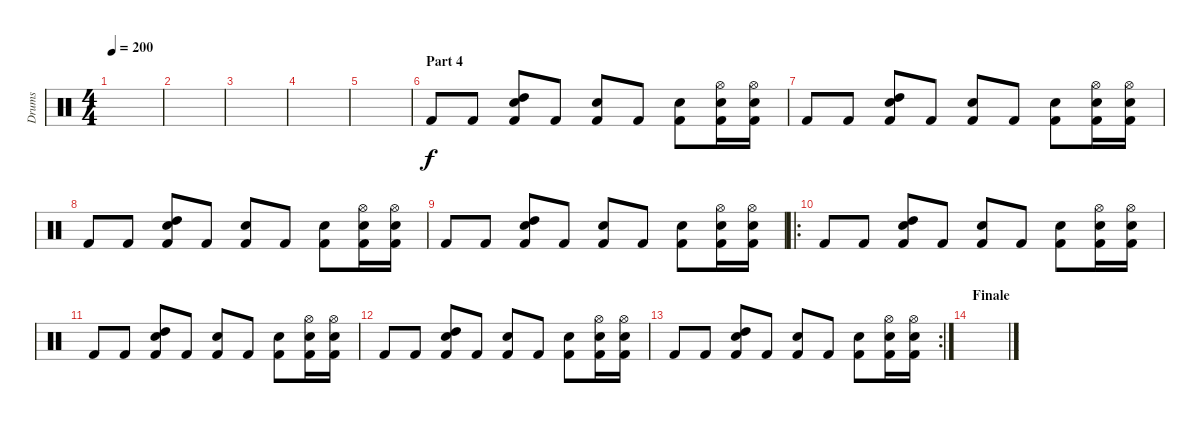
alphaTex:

\track ("Drums" "Drums") {instrument percussion}
\staff {score}
\articulation defaults
\ts (4 4)
\tempo 200
\clef neutral
\ks c
|
|
|
|
|
\section ("" "Part 4")
"Kick (hit) 2".8 "Kick (hit) 2".8 ("Kick (hit) 2" "Electric Snare (hit)" "High Tom (hit)").8 "Kick (hit) 2".8 ("Kick (hit) 2" "Electric Snare (hit)").8 "Kick (hit) 2".8 ("Kick (hit) 2" "Electric Snare (hit)").8 ("Kick (hit) 2" "Hi-Hat (open)" "Electric Snare (hit)").16 ("Kick (hit) 2" "Hi-Hat (open)" "Electric Snare (hit)").16 |
"Kick (hit) 2".8 "Kick (hit) 2".8 ("Kick (hit) 2" "Electric Snare (hit)" "High Tom (hit)").8 "Kick (hit) 2".8 ("Kick (hit) 2" "Electric Snare (hit)").8 "Kick (hit) 2".8 ("Kick (hit) 2" "Electric Snare (hit)").8 ("Kick (hit) 2" "Hi-Hat (open)" "Electric Snare (hit)").16 ("Kick (hit) 2" "Hi-Hat (open)" "Electric Snare (hit)").16 |
"Kick (hit) 2".8 "Kick (hit) 2".8 ("Kick (hit) 2" "Electric Snare (hit)" "High Tom (hit)").8 "Kick (hit) 2".8 ("Kick (hit) 2" "Electric Snare (hit)").8 "Kick (hit) 2".8 ("Kick (hit) 2" "Electric Snare (hit)").8 ("Kick (hit) 2" "Hi-Hat (open)" "Electric Snare (hit)").16 ("Kick (hit) 2" "Hi-Hat (open)" "Electric Snare (hit)").16 |
"Kick (hit) 2".8 "Kick (hit) 2".8 ("Kick (hit) 2" "Electric Snare (hit)" "High Tom (hit)").8 "Kick (hit) 2".8 ("Kick (hit) 2" "Electric Snare (hit)").8 "Kick (hit) 2".8 ("Kick (hit) 2" "Electric Snare (hit)").8 ("Kick (hit) 2" "Hi-Hat (open)" "Electric Snare (hit)").16 ("Kick (hit) 2" "Hi-Hat (open)" "Electric Snare (hit)").16 |
\ro "Kick (hit) 2".8 "Kick (hit) 2".8
("Kick (hit) 2" "Electric Snare (hit)" "High Tom (hit)").8 "Kick (hit) 2".8 ("Kick (hit) 2" "Electric Snare (hit)").8 "Kick (hit) 2".8 ("Kick (hit) 2" "Electric Snare (hit)").8 ("Kick (hit) 2" "Hi-Hat (open)" "Electric Snare (hit)").16 ("Kick (hit) 2" "Hi-Hat (open)" "Electric Snare (hit)").16 |
"Kick (hit) 2".8 "Kick (hit) 2".8 ("Kick (hit) 2" "Electric Snare (hit)" "High Tom (hit)").8 "Kick (hit) 2".8 ("Kick (hit) 2" "Electric Snare (hit)").8 "Kick (hit) 2".8 ("Kick (hit) 2" "Electric Snare (hit)").8 ("Kick (hit) 2" "Hi-Hat (open)" "Electric Snare (hit)").16 ("Kick (hit) 2" "Hi-Hat (open)" "Electric Snare (hit)").16 |
"Kick (hit) 2".8 "Kick (hit) 2".8 ("Kick (hit) 2" "Electric Snare (hit)" "High Tom (hit)").8 "Kick (hit) 2".8 ("Kick (hit) 2" "Electric Snare (hit)").8 "Kick (hit) 2".8 ("Kick (hit) 2" "Electric Snare (hit)").8 ("Kick (hit) 2" "Hi-Hat (open)" "Electric Snare (hit)").16 ("Kick (hit) 2" "Hi-Hat (open)" "Electric Snare (hit)").16 |
\rc 2 "Kick (hit) 2".8 "Kick (hit) 2".8
("Kick (hit) 2" "Electric Snare (hit)" "High Tom (hit)").8 "Kick (hit) 2".8 ("Kick (hit) 2" "Electric Snare (hit)").8 "Kick (hit) 2".8 ("Kick (hit) 2" "Electric Snare (hit)").8 ("Kick (hit) 2" "Hi-Hat (open)" "Electric Snare (hit)").16 ("Kick (hit) 2" "Hi-Hat (open)" "Electric Snare (hit)").16 |
\section ("" "Finale")
